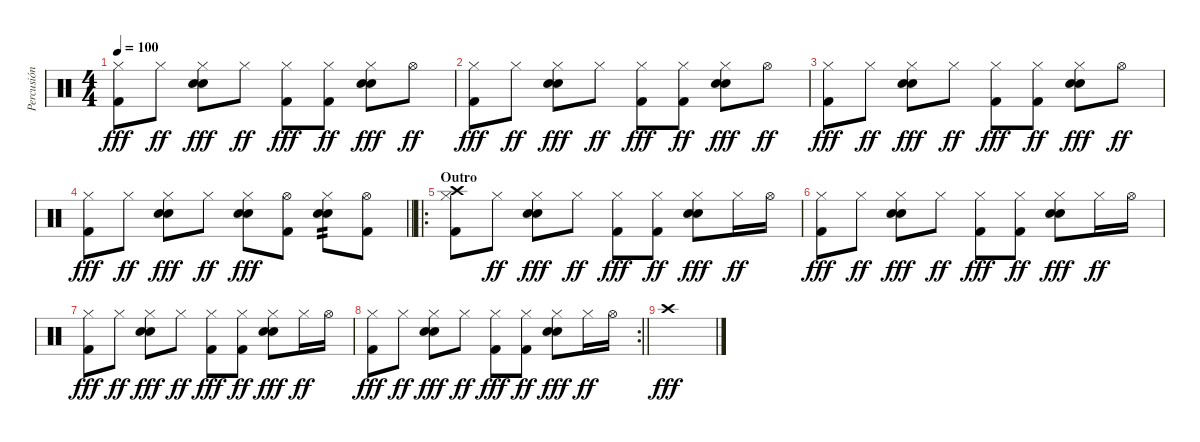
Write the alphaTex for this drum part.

\track ("Percusión" "Percusión") {instrument percussion}
\staff {score}
\articulation defaults
\ts (4 4)
\tempo 100
\clef neutral
\ks c
("Hi-Hat (closed)" "Kick (hit) 2").8{dy fff} "Hi-Hat (closed)".8{dy ff} ("Hi-Hat (closed)" "Electric Snare (hit)" "Electric Snare (hit)").8{dy fff} "Hi-Hat (closed)".8{dy ff} ("Hi-Hat (closed)" "Kick (hit) 2").8{dy fff} ("Hi-Hat (closed)" "Kick (hit) 2").8{dy ff} ("Hi-Hat (closed)" "Electric Snare (hit)" "Electric Snare (hit)").8{dy fff} "Hi-Hat (open)".8{dy ff} |
("Hi-Hat (closed)" "Kick (hit) 2").8{dy fff} "Hi-Hat (closed)".8{dy ff} ("Hi-Hat (closed)" "Electric Snare (hit)" "Electric Snare (hit)").8{dy fff} "Hi-Hat (closed)".8{dy ff} ("Hi-Hat (closed)" "Kick (hit) 2").8{dy fff} ("Hi-Hat (closed)" "Kick (hit) 2").8{dy ff} ("Hi-Hat (closed)" "Electric Snare (hit)" "Electric Snare (hit)").8{dy fff} "Hi-Hat (open)".8{dy ff} |
("Hi-Hat (closed)" "Kick (hit) 2").8{dy fff} "Hi-Hat (closed)".8{dy ff} ("Hi-Hat (closed)" "Electric Snare (hit)" "Electric Snare (hit)").8{dy fff} "Hi-Hat (closed)".8{dy ff} ("Hi-Hat (closed)" "Kick (hit) 2").8{dy fff} ("Hi-Hat (closed)" "Kick (hit) 2").8{dy ff} ("Hi-Hat (closed)" "Electric Snare (hit)" "Electric Snare (hit)").8{dy fff} "Hi-Hat (open)".8{dy ff} |
\barLineRight lightlight
("Hi-Hat (closed)" "Kick (hit) 2").8{dy fff} "Hi-Hat (closed)".8{dy ff} ("Hi-Hat (closed)" "Electric Snare (hit)" "Electric Snare (hit)").8{dy fff} "Hi-Hat (closed)".8{dy ff} ("Hi-Hat (closed)" "Electric Snare (hit)" "Electric Snare (hit)").8{dy fff} ("Hi-Hat (open)" "Kick (hit) 2").8 ("Hi-Hat (closed)" "Electric Snare (hit)" "Electric Snare (hit)").8{tp 2} ("Hi-Hat (open)" "Kick (hit) 2").8 |
\ro
\section ("" "Outro")
("Crash high (hit)" "Hi-Hat (closed)" "Kick (hit) 2").8 "Hi-Hat (closed)".8{dy ff} ("Hi-Hat (closed)" "Electric Snare (hit)" "Electric Snare (hit)").8{dy fff} "Hi-Hat (closed)".8{dy ff} ("Hi-Hat (closed)" "Kick (hit) 2").8{dy fff} ("Hi-Hat (closed)" "Kick (hit) 2").8{dy ff} ("Hi-Hat (closed)" "Electric Snare (hit)" "Electric Snare (hit)").8{dy fff} "Hi-Hat (closed)".16{dy ff} "Hi-Hat (open)".16 |
("Hi-Hat (closed)" "Kick (hit) 2").8{dy fff} "Hi-Hat (closed)".8{dy ff} ("Hi-Hat (closed)" "Electric Snare (hit)" "Electric Snare (hit)").8{dy fff} "Hi-Hat (closed)".8{dy ff} ("Hi-Hat (closed)" "Kick (hit) 2").8{dy fff} ("Hi-Hat (closed)" "Kick (hit) 2").8{dy ff} ("Hi-Hat (closed)" "Electric Snare (hit)" "Electric Snare (hit)").8{dy fff} "Hi-Hat (closed)".16{dy ff} "Hi-Hat (open)".16 |
("Hi-Hat (closed)" "Kick (hit) 2").8{dy fff} "Hi-Hat (closed)".8{dy ff} ("Hi-Hat (closed)" "Electric Snare (hit)" "Electric Snare (hit)").8{dy fff} "Hi-Hat (closed)".8{dy ff} ("Hi-Hat (closed)" "Kick (hit) 2").8{dy fff} ("Hi-Hat (closed)" "Kick (hit) 2").8{dy ff} ("Hi-Hat (closed)" "Electric Snare (hit)" "Electric Snare (hit)").8{dy fff} "Hi-Hat (closed)".16{dy ff} "Hi-Hat (open)".16 |
\rc 2
\barLineRight lightlight
("Hi-Hat (closed)" "Kick (hit) 2").8{dy fff} "Hi-Hat (closed)".8{dy ff} ("Hi-Hat (closed)" "Electric Snare (hit)" "Electric Snare (hit)").8{dy fff} "Hi-Hat (closed)".8{dy ff} ("Hi-Hat (closed)" "Kick (hit) 2").8{dy fff} ("Hi-Hat (closed)" "Kick (hit) 2").8{dy ff} ("Hi-Hat (closed)" "Electric Snare (hit)" "Electric Snare (hit)").8{dy fff} "Hi-Hat (closed)".16{dy ff} "Hi-Hat (open)".16 |
"Crash high (hit)".1{dy fff}
